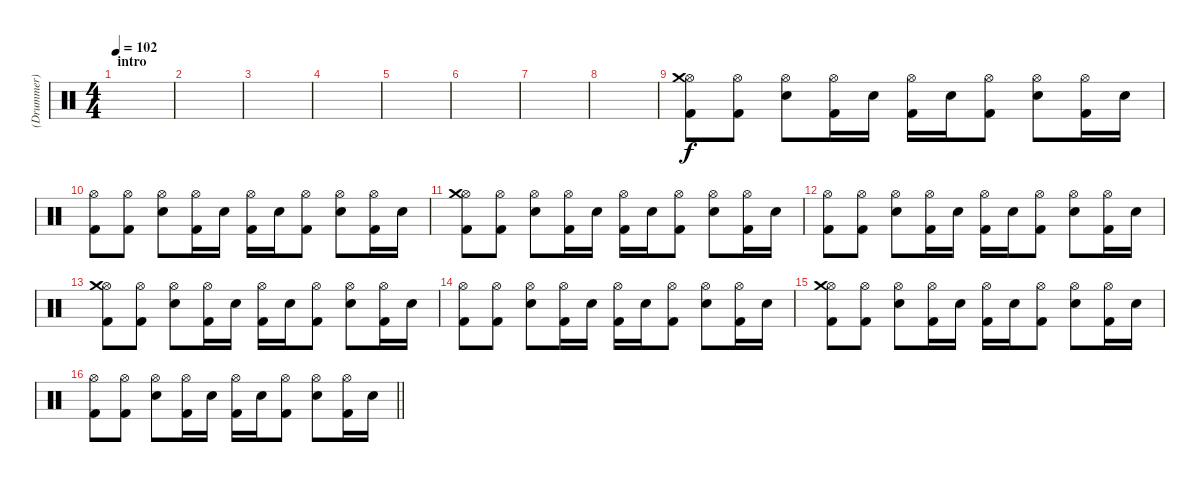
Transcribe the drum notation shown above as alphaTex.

\track ("(Drummer)" "(Drummer)") {solo instrument percussion}
\staff {score}
\articulation defaults
\ts (4 4)
\section ("" "intro")
\tempo 102
\clef neutral
\ks c
|
|
|
|
|
|
|
|
("Hi-Hat (open)" "Crash medium (hit)" "Kick (hit) 2").8 ("Hi-Hat (open)" "Kick (hit) 2").8 ("Hi-Hat (open)" "Electric Snare (hit)").8 ("Hi-Hat (open)" "Kick (hit) 2").16 "Electric Snare (hit)".16 ("Hi-Hat (open)" "Kick (hit) 2").16 "Electric Snare (hit)".16 ("Hi-Hat (open)" "Kick (hit) 2").8 ("Hi-Hat (open)" "Electric Snare (hit)").8 ("Hi-Hat (open)" "Kick (hit) 2").16 "Electric Snare (hit)".16 |
("Hi-Hat (open)" "Kick (hit) 2").8 ("Hi-Hat (open)" "Kick (hit) 2").8 ("Hi-Hat (open)" "Electric Snare (hit)").8 ("Hi-Hat (open)" "Kick (hit) 2").16 "Electric Snare (hit)".16 ("Hi-Hat (open)" "Kick (hit) 2").16 "Electric Snare (hit)".16 ("Hi-Hat (open)" "Kick (hit) 2").8 ("Hi-Hat (open)" "Electric Snare (hit)").8 ("Hi-Hat (open)" "Kick (hit) 2").16 "Electric Snare (hit)".16 |
("Hi-Hat (open)" "Crash medium (hit)" "Kick (hit) 2").8 ("Hi-Hat (open)" "Kick (hit) 2").8 ("Hi-Hat (open)" "Electric Snare (hit)").8 ("Hi-Hat (open)" "Kick (hit) 2").16 "Electric Snare (hit)".16 ("Hi-Hat (open)" "Kick (hit) 2").16 "Electric Snare (hit)".16 ("Hi-Hat (open)" "Kick (hit) 2").8 ("Hi-Hat (open)" "Electric Snare (hit)").8 ("Hi-Hat (open)" "Kick (hit) 2").16 "Electric Snare (hit)".16 |
("Hi-Hat (open)" "Kick (hit) 2").8 ("Hi-Hat (open)" "Kick (hit) 2").8 ("Hi-Hat (open)" "Electric Snare (hit)").8 ("Hi-Hat (open)" "Kick (hit) 2").16 "Electric Snare (hit)".16 ("Hi-Hat (open)" "Kick (hit) 2").16 "Electric Snare (hit)".16 ("Hi-Hat (open)" "Kick (hit) 2").8 ("Hi-Hat (open)" "Electric Snare (hit)").8 ("Hi-Hat (open)" "Kick (hit) 2").16 "Electric Snare (hit)".16 |
("Hi-Hat (open)" "Crash medium (hit)" "Kick (hit) 2").8 ("Hi-Hat (open)" "Kick (hit) 2").8 ("Hi-Hat (open)" "Electric Snare (hit)").8 ("Hi-Hat (open)" "Kick (hit) 2").16 "Electric Snare (hit)".16 ("Hi-Hat (open)" "Kick (hit) 2").16 "Electric Snare (hit)".16 ("Hi-Hat (open)" "Kick (hit) 2").8 ("Hi-Hat (open)" "Electric Snare (hit)").8 ("Hi-Hat (open)" "Kick (hit) 2").16 "Electric Snare (hit)".16 |
("Hi-Hat (open)" "Kick (hit) 2").8 ("Hi-Hat (open)" "Kick (hit) 2").8 ("Hi-Hat (open)" "Electric Snare (hit)").8 ("Hi-Hat (open)" "Kick (hit) 2").16 "Electric Snare (hit)".16 ("Hi-Hat (open)" "Kick (hit) 2").16 "Electric Snare (hit)".16 ("Hi-Hat (open)" "Kick (hit) 2").8 ("Hi-Hat (open)" "Electric Snare (hit)").8 ("Hi-Hat (open)" "Kick (hit) 2").16 "Electric Snare (hit)".16 |
("Hi-Hat (open)" "Crash medium (hit)" "Kick (hit) 2").8 ("Hi-Hat (open)" "Kick (hit) 2").8 ("Hi-Hat (open)" "Electric Snare (hit)").8 ("Hi-Hat (open)" "Kick (hit) 2").16 "Electric Snare (hit)".16 ("Hi-Hat (open)" "Kick (hit) 2").16 "Electric Snare (hit)".16 ("Hi-Hat (open)" "Kick (hit) 2").8 ("Hi-Hat (open)" "Electric Snare (hit)").8 ("Hi-Hat (open)" "Kick (hit) 2").16 "Electric Snare (hit)".16 |
\barLineRight lightlight
("Hi-Hat (open)" "Kick (hit) 2").8 ("Hi-Hat (open)" "Kick (hit) 2").8 ("Hi-Hat (open)" "Electric Snare (hit)").8 ("Hi-Hat (open)" "Kick (hit) 2").16 "Electric Snare (hit)".16 ("Hi-Hat (open)" "Kick (hit) 2").16 "Electric Snare (hit)".16 ("Hi-Hat (open)" "Kick (hit) 2").8 ("Hi-Hat (open)" "Electric Snare (hit)").8 ("Hi-Hat (open)" "Kick (hit) 2").16 "Electric Snare (hit)".16
